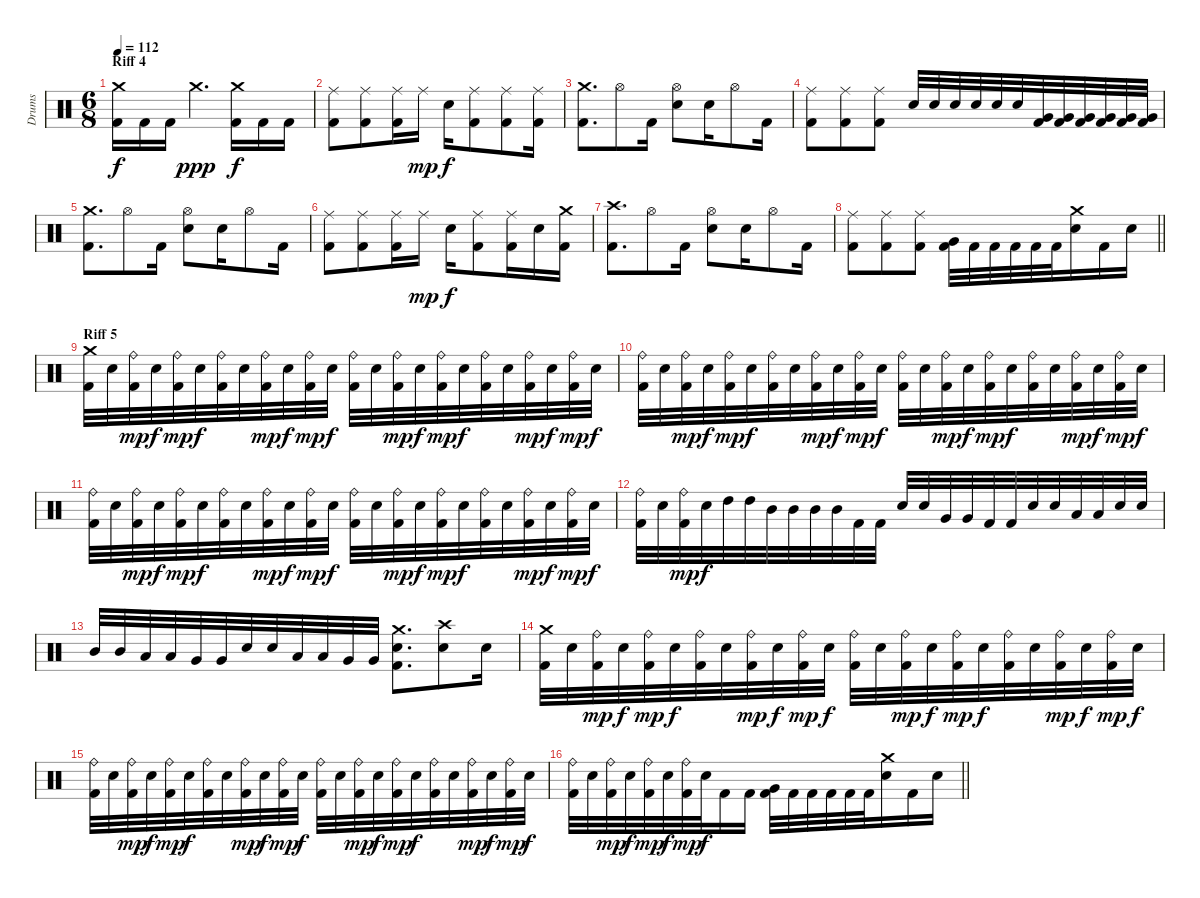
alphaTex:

\track ("Drums" "Drums") {instrument percussion}
\staff {score}
\articulation defaults
\ts (6 8)
\section ("" "Riff 4")
\tempo 112
\clef neutral
\ks c
("Crash medium (hit)" "Kick (hit) 2").16{dy f} "Kick (hit) 2".16 "Kick (hit) 2".16 "Crash medium (hit)".4{d dy ppp} ("Kick (hit) 2" "Crash medium (hit)").16{dy f} "Kick (hit) 2".16 "Kick (hit) 2".16 |
("Ride (middle)" "Kick (hit) 2").8 ("Ride (middle)" "Kick (hit) 2").8 ("Kick (hit) 2" "Ride (middle)").16 "Ride (middle)".16{dy mp} "Electric Snare (hit)".16{dy f} ("Ride (middle)" "Kick (hit) 2").8 ("Kick (hit) 2" "Ride (middle)").8 ("Kick (hit) 2" "Ride (middle)").16 |
("Kick (hit) 2" "Crash medium (hit)").8{d} "Hi-Hat (open)".8 "Kick (hit) 2".16 ("Electric Snare (hit)" "Hi-Hat (open)").8 "Electric Snare (hit)".16 "Hi-Hat (open)".8 "Kick (hit) 2".16 |
("Ride (middle)" "Kick (hit) 2").8 ("Ride (middle)" "Kick (hit) 2").8 ("Kick (hit) 2" "Ride (middle)").8 "Electric Snare (hit)".32 "Electric Snare (hit)".32 "Electric Snare (hit)".32 "Electric Snare (hit)".32 "Electric Snare (hit)".32 "Electric Snare (hit)".32 ("Kick (hit) 2" "Very Low Tom (hit)").32 ("Kick (hit) 2" "Very Low Tom (hit)").32 ("Kick (hit) 2" "Very Low Tom (hit)").32 ("Kick (hit) 2" "Very Low Tom (hit)").32 ("Kick (hit) 2" "Very Low Tom (hit)").32 ("Kick (hit) 2" "Very Low Tom (hit)").32 |
("Kick (hit) 2" "Crash medium (hit)").8{d} "Hi-Hat (open)".8 "Kick (hit) 2".16 ("Electric Snare (hit)" "Hi-Hat (open)").8 "Electric Snare (hit)".16 "Hi-Hat (open)".8 "Kick (hit) 2".16 |
("Ride (middle)" "Kick (hit) 2").8 ("Ride (middle)" "Kick (hit) 2").8 ("Kick (hit) 2" "Ride (middle)").16 "Ride (middle)".16{dy mp} "Electric Snare (hit)".16{dy f} ("Ride (middle)" "Kick (hit) 2").8 ("Kick (hit) 2" "Ride (middle)").16 "Electric Snare (hit)".16 ("Kick (hit) 2" "Crash medium (hit)").16 |
("Kick (hit) 2" "Crash high (hit)").8{d} "Hi-Hat (open)".8 "Kick (hit) 2".16 ("Electric Snare (hit)" "Hi-Hat (open)").8 "Electric Snare (hit)".16 "Hi-Hat (open)".8 "Kick (hit) 2".16 |
\barLineRight lightlight
("Ride (middle)" "Kick (hit) 2").8 ("Ride (middle)" "Kick (hit) 2").8 ("Kick (hit) 2" "Ride (middle)").8 ("Very Low Tom (hit)" "Kick (hit) 2").32 "Kick (hit) 2".32 "Kick (hit) 2".32 "Kick (hit) 2".32 "Kick (hit) 2".32 "Kick (hit) 2".32 ("Electric Snare (hit)" "Crash medium (hit)").16 "Kick (hit) 2".16 "Electric Snare (hit)".16 |
\section ("" "Riff 5")
("Crash medium (hit)" "Kick (hit) 2").32 "Electric Snare (hit)".32 ("Ride (bell)" "Kick (hit) 2").32{dy mp} "Electric Snare (hit)".32{dy f} ("Ride (bell)" "Kick (hit) 2").32{dy mp} "Electric Snare (hit)".32{dy f} ("Ride (bell)" "Kick (hit) 2").32 "Electric Snare (hit)".32 ("Ride (bell)" "Kick (hit) 2").32{dy mp} "Electric Snare (hit)".32{dy f} ("Ride (bell)" "Kick (hit) 2").32{dy mp} "Electric Snare (hit)".32{dy f} ("Ride (bell)" "Kick (hit) 2").32 "Electric Snare (hit)".32 ("Ride (bell)" "Kick (hit) 2").32{dy mp} "Electric Snare (hit)".32{dy f} ("Ride (bell)" "Kick (hit) 2").32{dy mp} "Electric Snare (hit)".32{dy f} ("Ride (bell)" "Kick (hit) 2").32 "Electric Snare (hit)".32 ("Ride (bell)" "Kick (hit) 2").32{dy mp} "Electric Snare (hit)".32{dy f} ("Ride (bell)" "Kick (hit) 2").32{dy mp} "Electric Snare (hit)".32{dy f} |
("Ride (bell)" "Kick (hit) 2").32 "Electric Snare (hit)".32 ("Ride (bell)" "Kick (hit) 2").32{dy mp} "Electric Snare (hit)".32{dy f} ("Ride (bell)" "Kick (hit) 2").32{dy mp} "Electric Snare (hit)".32{dy f} ("Ride (bell)" "Kick (hit) 2").32 "Electric Snare (hit)".32 ("Ride (bell)" "Kick (hit) 2").32{dy mp} "Electric Snare (hit)".32{dy f} ("Ride (bell)" "Kick (hit) 2").32{dy mp} "Electric Snare (hit)".32{dy f} ("Ride (bell)" "Kick (hit) 2").32 "Electric Snare (hit)".32 ("Ride (bell)" "Kick (hit) 2").32{dy mp} "Electric Snare (hit)".32{dy f} ("Ride (bell)" "Kick (hit) 2").32{dy mp} "Electric Snare (hit)".32{dy f} ("Ride (bell)" "Kick (hit) 2").32 "Electric Snare (hit)".32 ("Ride (bell)" "Kick (hit) 2").32{dy mp} "Electric Snare (hit)".32{dy f} ("Ride (bell)" "Kick (hit) 2").32{dy mp} "Electric Snare (hit)".32{dy f} |
("Ride (bell)" "Kick (hit) 2").32 "Electric Snare (hit)".32 ("Ride (bell)" "Kick (hit) 2").32{dy mp} "Electric Snare (hit)".32{dy f} ("Ride (bell)" "Kick (hit) 2").32{dy mp} "Electric Snare (hit)".32{dy f} ("Ride (bell)" "Kick (hit) 2").32 "Electric Snare (hit)".32 ("Ride (bell)" "Kick (hit) 2").32{dy mp} "Electric Snare (hit)".32{dy f} ("Ride (bell)" "Kick (hit) 2").32{dy mp} "Electric Snare (hit)".32{dy f} ("Ride (bell)" "Kick (hit) 2").32 "Electric Snare (hit)".32 ("Ride (bell)" "Kick (hit) 2").32{dy mp} "Electric Snare (hit)".32{dy f} ("Ride (bell)" "Kick (hit) 2").32{dy mp} "Electric Snare (hit)".32{dy f} ("Ride (bell)" "Kick (hit) 2").32 "Electric Snare (hit)".32 ("Ride (bell)" "Kick (hit) 2").32{dy mp} "Electric Snare (hit)".32{dy f} ("Ride (bell)" "Kick (hit) 2").32{dy mp} "Electric Snare (hit)".32{dy f} |
("Ride (bell)" "Kick (hit) 2").32 "Electric Snare (hit)".32 ("Ride (bell)" "Kick (hit) 2").32{dy mp} "Electric Snare (hit)".32{dy f} "High Tom (hit)".32 "High Tom (hit)".32 "Mid Tom (hit)".32 "Mid Tom (hit)".32 "Mid Tom (hit)".32 "Mid Tom (hit)".32 "Kick (hit) 2".32 "Kick (hit) 2".32 "Electric Snare (hit)".32 "Electric Snare (hit)".32 "Very Low Tom (hit)".32 "Very Low Tom (hit)".32 "Kick (hit) 2".32 "Kick (hit) 2".32 "Electric Snare (hit)".32 "Electric Snare (hit)".32 "Low Tom (hit)".32 "Low Tom (hit)".32 "Electric Snare (hit)".32 "Electric Snare (hit)".32 |
"Mid Tom (hit)".32 "Mid Tom (hit)".32 "Low Tom (hit)".32 "Low Tom (hit)".32 "Very Low Tom (hit)".32 "Very Low Tom (hit)".32 "Electric Snare (hit)".32 "Electric Snare (hit)".32 "Low Tom (hit)".32 "Low Tom (hit)".32 "Very Low Tom (hit)".32 "Very Low Tom (hit)".32 ("Crash medium (hit)" "Electric Snare (hit)" "Kick (hit) 2").8{d} ("Electric Snare (hit)" "Crash high (hit)").8 "Electric Snare (hit)".16 |
("Crash medium (hit)" "Kick (hit) 2").32 "Electric Snare (hit)".32 ("Ride (bell)" "Kick (hit) 2").32{dy mp} "Electric Snare (hit)".32{dy f} ("Ride (bell)" "Kick (hit) 2").32{dy mp} "Electric Snare (hit)".32{dy f} ("Ride (bell)" "Kick (hit) 2").32 "Electric Snare (hit)".32 ("Ride (bell)" "Kick (hit) 2").32{dy mp} "Electric Snare (hit)".32{dy f} ("Ride (bell)" "Kick (hit) 2").32{dy mp} "Electric Snare (hit)".32{dy f} ("Ride (bell)" "Kick (hit) 2").32 "Electric Snare (hit)".32 ("Ride (bell)" "Kick (hit) 2").32{dy mp} "Electric Snare (hit)".32{dy f} ("Ride (bell)" "Kick (hit) 2").32{dy mp} "Electric Snare (hit)".32{dy f} ("Ride (bell)" "Kick (hit) 2").32 "Electric Snare (hit)".32 ("Ride (bell)" "Kick (hit) 2").32{dy mp} "Electric Snare (hit)".32{dy f} ("Ride (bell)" "Kick (hit) 2").32{dy mp} "Electric Snare (hit)".32{dy f} |
("Ride (bell)" "Kick (hit) 2").32 "Electric Snare (hit)".32 ("Ride (bell)" "Kick (hit) 2").32{dy mp} "Electric Snare (hit)".32{dy f} ("Ride (bell)" "Kick (hit) 2").32{dy mp} "Electric Snare (hit)".32{dy f} ("Ride (bell)" "Kick (hit) 2").32 "Electric Snare (hit)".32 ("Ride (bell)" "Kick (hit) 2").32{dy mp} "Electric Snare (hit)".32{dy f} ("Ride (bell)" "Kick (hit) 2").32{dy mp} "Electric Snare (hit)".32{dy f} ("Ride (bell)" "Kick (hit) 2").32 "Electric Snare (hit)".32 ("Ride (bell)" "Kick (hit) 2").32{dy mp} "Electric Snare (hit)".32{dy f} ("Ride (bell)" "Kick (hit) 2").32{dy mp} "Electric Snare (hit)".32{dy f} ("Ride (bell)" "Kick (hit) 2").32 "Electric Snare (hit)".32 ("Ride (bell)" "Kick (hit) 2").32{dy mp} "Electric Snare (hit)".32{dy f} ("Ride (bell)" "Kick (hit) 2").32{dy mp} "Electric Snare (hit)".32{dy f} |
\barLineRight lightlight
("Ride (bell)" "Kick (hit) 2").32 "Electric Snare (hit)".32 ("Ride (bell)" "Kick (hit) 2").32{dy mp} "Electric Snare (hit)".32{dy f} ("Ride (bell)" "Kick (hit) 2").32{dy mp} "Electric Snare (hit)".32{dy f} ("Ride (bell)" "Kick (hit) 2").32{dy mp} "Electric Snare (hit)".32{dy f} "Kick (hit) 2".16 "Kick (hit) 2".16 ("Kick (hit) 2" "Very Low Tom (hit)").32 "Kick (hit) 2".32 "Kick (hit) 2".32 "Kick (hit) 2".32 "Kick (hit) 2".32 "Kick (hit) 2".32 ("Electric Snare (hit)" "Crash medium (hit)").16 "Kick (hit) 2".16 "Electric Snare (hit)".16
